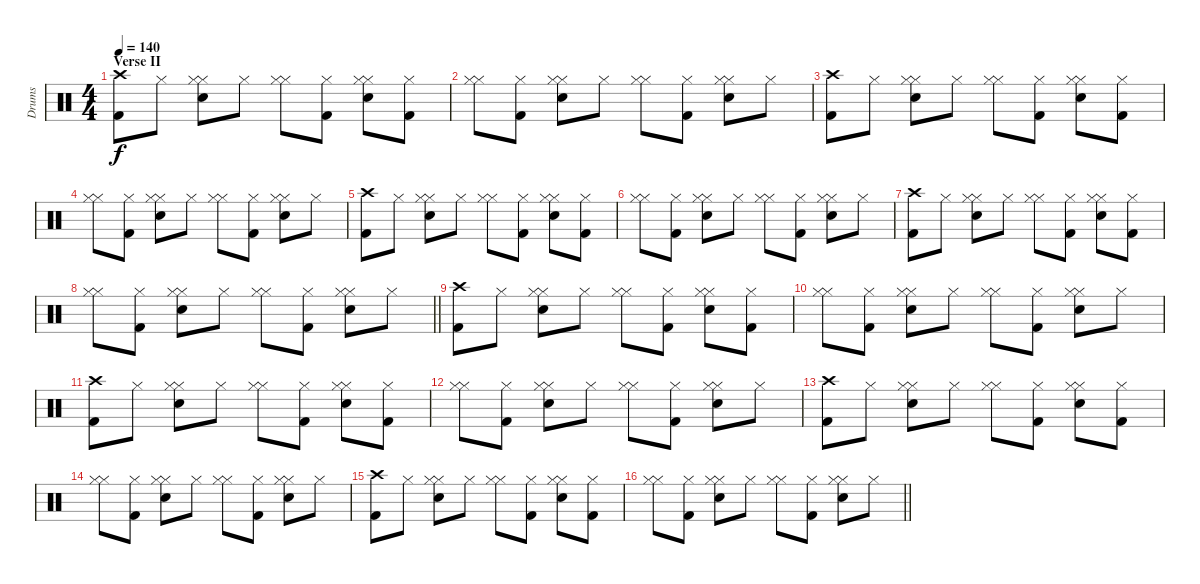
\track ("Drums" "Drums") {instrument percussion}
\staff {score}
\articulation defaults
\ts (4 4)
\section ("" "Verse II")
\tempo 140
\clef neutral
\ks c
("Crash high (hit)" "Kick (hit) 2").8{dy f} "Hi-Hat (closed)".8 ("Hi-Hat (closed)" "Snare (hit) 2" "Hi-Hat (closed)").8 "Hi-Hat (closed)".8 ("Hi-Hat (closed)" "Hi-Hat (closed)").8 ("Kick (hit) 2" "Hi-Hat (closed)").8 ("Hi-Hat (closed)" "Snare (hit) 2" "Hi-Hat (closed)").8 ("Kick (hit) 2" "Hi-Hat (closed)").8 |
("Hi-Hat (closed)" "Hi-Hat (closed)").8 ("Kick (hit) 2" "Hi-Hat (closed)").8 ("Hi-Hat (closed)" "Snare (hit) 2" "Hi-Hat (closed)").8 "Hi-Hat (closed)".8 ("Hi-Hat (closed)" "Hi-Hat (closed)").8 ("Kick (hit) 2" "Hi-Hat (closed)").8 ("Hi-Hat (closed)" "Snare (hit) 2" "Hi-Hat (closed)").8 "Hi-Hat (closed)".8 |
("Crash high (hit)" "Kick (hit) 2").8 "Hi-Hat (closed)".8 ("Hi-Hat (closed)" "Snare (hit) 2" "Hi-Hat (closed)").8 "Hi-Hat (closed)".8 ("Hi-Hat (closed)" "Hi-Hat (closed)").8 ("Kick (hit) 2" "Hi-Hat (closed)").8 ("Hi-Hat (closed)" "Snare (hit) 2" "Hi-Hat (closed)").8 ("Kick (hit) 2" "Hi-Hat (closed)").8 |
("Hi-Hat (closed)" "Hi-Hat (closed)").8 ("Kick (hit) 2" "Hi-Hat (closed)").8 ("Hi-Hat (closed)" "Snare (hit) 2" "Hi-Hat (closed)").8 "Hi-Hat (closed)".8 ("Hi-Hat (closed)" "Hi-Hat (closed)").8 ("Kick (hit) 2" "Hi-Hat (closed)").8 ("Hi-Hat (closed)" "Snare (hit) 2" "Hi-Hat (closed)").8 "Hi-Hat (closed)".8 |
("Crash high (hit)" "Kick (hit) 2").8 "Hi-Hat (closed)".8 ("Hi-Hat (closed)" "Snare (hit) 2" "Hi-Hat (closed)").8 "Hi-Hat (closed)".8 ("Hi-Hat (closed)" "Hi-Hat (closed)").8 ("Kick (hit) 2" "Hi-Hat (closed)").8 ("Hi-Hat (closed)" "Snare (hit) 2" "Hi-Hat (closed)").8 ("Kick (hit) 2" "Hi-Hat (closed)").8 |
("Hi-Hat (closed)" "Hi-Hat (closed)").8 ("Kick (hit) 2" "Hi-Hat (closed)").8 ("Hi-Hat (closed)" "Snare (hit) 2" "Hi-Hat (closed)").8 "Hi-Hat (closed)".8 ("Hi-Hat (closed)" "Hi-Hat (closed)").8 ("Kick (hit) 2" "Hi-Hat (closed)").8 ("Hi-Hat (closed)" "Snare (hit) 2" "Hi-Hat (closed)").8 "Hi-Hat (closed)".8 |
("Crash high (hit)" "Kick (hit) 2").8 "Hi-Hat (closed)".8 ("Hi-Hat (closed)" "Snare (hit) 2" "Hi-Hat (closed)").8 "Hi-Hat (closed)".8 ("Hi-Hat (closed)" "Hi-Hat (closed)").8 ("Kick (hit) 2" "Hi-Hat (closed)").8 ("Hi-Hat (closed)" "Snare (hit) 2" "Hi-Hat (closed)").8 ("Kick (hit) 2" "Hi-Hat (closed)").8 |
\barLineRight lightlight
("Hi-Hat (closed)" "Hi-Hat (closed)").8 ("Kick (hit) 2" "Hi-Hat (closed)").8 ("Hi-Hat (closed)" "Snare (hit) 2" "Hi-Hat (closed)").8 "Hi-Hat (closed)".8 ("Hi-Hat (closed)" "Hi-Hat (closed)").8 ("Kick (hit) 2" "Hi-Hat (closed)").8 ("Hi-Hat (closed)" "Snare (hit) 2" "Hi-Hat (closed)").8 "Hi-Hat (closed)".8 |
("Crash high (hit)" "Kick (hit) 2").8 "Hi-Hat (closed)".8 ("Hi-Hat (closed)" "Snare (hit) 2" "Hi-Hat (closed)").8 "Hi-Hat (closed)".8 ("Hi-Hat (closed)" "Hi-Hat (closed)").8 ("Kick (hit) 2" "Hi-Hat (closed)").8 ("Hi-Hat (closed)" "Snare (hit) 2" "Hi-Hat (closed)").8 ("Kick (hit) 2" "Hi-Hat (closed)").8 |
("Hi-Hat (closed)" "Hi-Hat (closed)").8 ("Kick (hit) 2" "Hi-Hat (closed)").8 ("Hi-Hat (closed)" "Snare (hit) 2" "Hi-Hat (closed)").8 "Hi-Hat (closed)".8 ("Hi-Hat (closed)" "Hi-Hat (closed)").8 ("Kick (hit) 2" "Hi-Hat (closed)").8 ("Hi-Hat (closed)" "Snare (hit) 2" "Hi-Hat (closed)").8 "Hi-Hat (closed)".8 |
("Crash high (hit)" "Kick (hit) 2").8 "Hi-Hat (closed)".8 ("Hi-Hat (closed)" "Snare (hit) 2" "Hi-Hat (closed)").8 "Hi-Hat (closed)".8 ("Hi-Hat (closed)" "Hi-Hat (closed)").8 ("Kick (hit) 2" "Hi-Hat (closed)").8 ("Hi-Hat (closed)" "Snare (hit) 2" "Hi-Hat (closed)").8 ("Kick (hit) 2" "Hi-Hat (closed)").8 |
("Hi-Hat (closed)" "Hi-Hat (closed)").8 ("Kick (hit) 2" "Hi-Hat (closed)").8 ("Hi-Hat (closed)" "Snare (hit) 2" "Hi-Hat (closed)").8 "Hi-Hat (closed)".8 ("Hi-Hat (closed)" "Hi-Hat (closed)").8 ("Kick (hit) 2" "Hi-Hat (closed)").8 ("Hi-Hat (closed)" "Snare (hit) 2" "Hi-Hat (closed)").8 "Hi-Hat (closed)".8 |
("Crash high (hit)" "Kick (hit) 2").8 "Hi-Hat (closed)".8 ("Hi-Hat (closed)" "Snare (hit) 2" "Hi-Hat (closed)").8 "Hi-Hat (closed)".8 ("Hi-Hat (closed)" "Hi-Hat (closed)").8 ("Kick (hit) 2" "Hi-Hat (closed)").8 ("Hi-Hat (closed)" "Snare (hit) 2" "Hi-Hat (closed)").8 ("Kick (hit) 2" "Hi-Hat (closed)").8 |
("Hi-Hat (closed)" "Hi-Hat (closed)").8 ("Kick (hit) 2" "Hi-Hat (closed)").8 ("Hi-Hat (closed)" "Snare (hit) 2" "Hi-Hat (closed)").8 "Hi-Hat (closed)".8 ("Hi-Hat (closed)" "Hi-Hat (closed)").8 ("Kick (hit) 2" "Hi-Hat (closed)").8 ("Hi-Hat (closed)" "Snare (hit) 2" "Hi-Hat (closed)").8 "Hi-Hat (closed)".8 |
("Crash high (hit)" "Kick (hit) 2").8 "Hi-Hat (closed)".8 ("Hi-Hat (closed)" "Snare (hit) 2" "Hi-Hat (closed)").8 "Hi-Hat (closed)".8 ("Hi-Hat (closed)" "Hi-Hat (closed)").8 ("Kick (hit) 2" "Hi-Hat (closed)").8 ("Hi-Hat (closed)" "Snare (hit) 2" "Hi-Hat (closed)").8 ("Kick (hit) 2" "Hi-Hat (closed)").8 |
\barLineRight lightlight
("Hi-Hat (closed)" "Hi-Hat (closed)").8 ("Kick (hit) 2" "Hi-Hat (closed)").8 ("Hi-Hat (closed)" "Snare (hit) 2" "Hi-Hat (closed)").8 "Hi-Hat (closed)".8 ("Hi-Hat (closed)" "Hi-Hat (closed)").8 ("Kick (hit) 2" "Hi-Hat (closed)").8 ("Hi-Hat (closed)" "Snare (hit) 2" "Hi-Hat (closed)").8 "Hi-Hat (closed)".8
